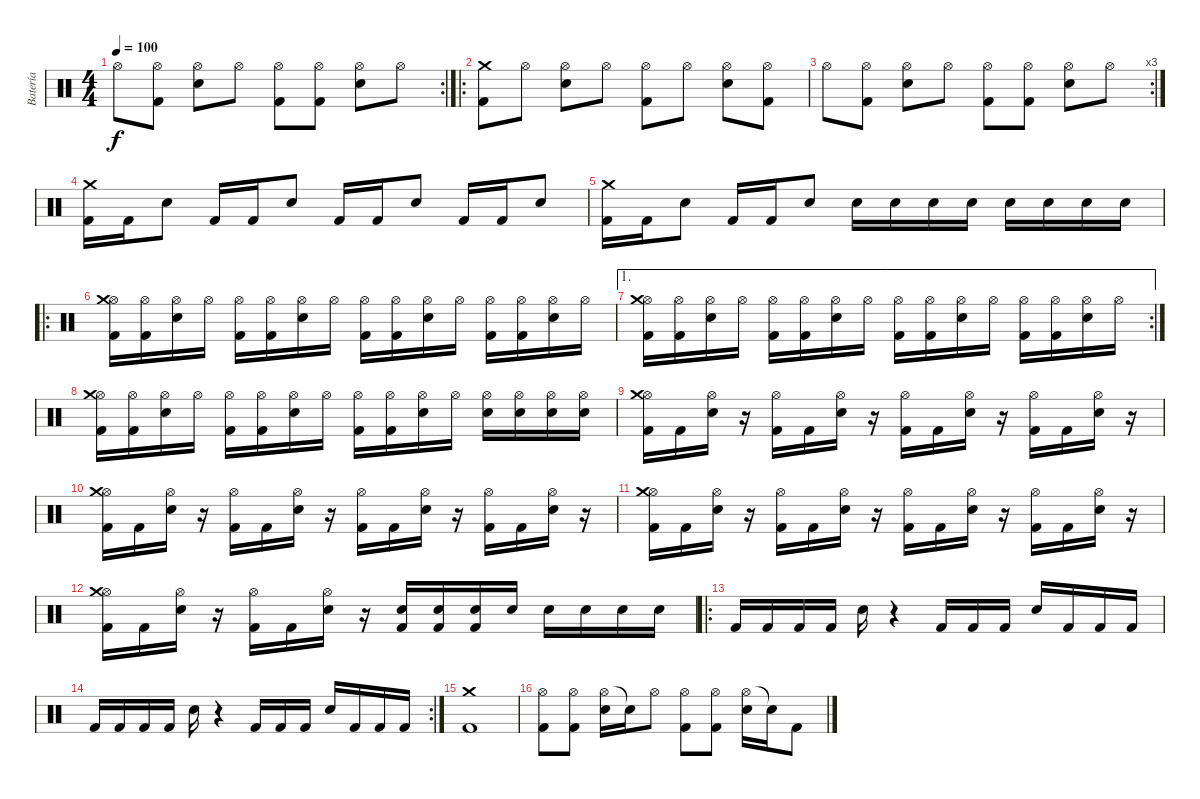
\track ("Batería" "Batería") {instrument percussion}
\staff {score}
\articulation defaults
\rc 2
\ts (4 4)
\tempo 100
\clef neutral
\ks c "Hi-Hat (open)".8{dy f}
("Kick (hit) 2" "Hi-Hat (open)").8 ("Snare (hit) 2" "Hi-Hat (open)").8 "Hi-Hat (open)".8 ("Kick (hit) 2" "Hi-Hat (open)").8 ("Kick (hit) 2" "Hi-Hat (open)").8 ("Snare (hit) 2" "Hi-Hat (open)").8 "Hi-Hat (open)".8 |
\ro
("Kick (hit) 2" "Crash medium (hit)").8 "Hi-Hat (open)".8 ("Snare (hit) 2" "Hi-Hat (open)").8 "Hi-Hat (open)".8 ("Kick (hit) 2" "Hi-Hat (open)").8 "Hi-Hat (open)".8 ("Snare (hit) 2" "Hi-Hat (open)").8 ("Kick (hit) 2" "Hi-Hat (open)").8 |
\rc 3 "Hi-Hat (open)".8
("Kick (hit) 2" "Hi-Hat (open)").8 ("Snare (hit) 2" "Hi-Hat (open)").8 "Hi-Hat (open)".8 ("Kick (hit) 2" "Hi-Hat (open)").8 ("Kick (hit) 2" "Hi-Hat (open)").8 ("Snare (hit) 2" "Hi-Hat (open)").8 "Hi-Hat (open)".8 |
("Kick (hit) 2" "Crash medium (hit)").16 "Kick (hit) 2".16 "Snare (hit) 2".8 "Kick (hit) 2".16 "Kick (hit) 2".16 "Snare (hit) 2".8 "Kick (hit) 2".16 "Kick (hit) 2".16 "Snare (hit) 2".8 "Kick (hit) 2".16 "Kick (hit) 2".16 "Snare (hit) 2".8 |
("Kick (hit) 2" "Crash medium (hit)").16 "Kick (hit) 2".16 "Snare (hit) 2".8 "Kick (hit) 2".16 "Kick (hit) 2".16 "Snare (hit) 2".8 "Snare (hit) 2".16 "Snare (hit) 2".16 "Snare (hit) 2".16 "Snare (hit) 2".16 "Snare (hit) 2".16 "Snare (hit) 2".16 "Snare (hit) 2".16 "Snare (hit) 2".16 |
\ro
("Kick (hit) 2" "Hi-Hat (open)" "Crash medium (hit)").16 ("Kick (hit) 2" "Hi-Hat (open)").16 ("Snare (hit) 2" "Hi-Hat (open)").16 "Hi-Hat (open)".16 ("Kick (hit) 2" "Hi-Hat (open)").16 ("Kick (hit) 2" "Hi-Hat (open)").16 ("Snare (hit) 2" "Hi-Hat (open)").16 "Hi-Hat (open)".16 ("Kick (hit) 2" "Hi-Hat (open)").16 ("Kick (hit) 2" "Hi-Hat (open)").16 ("Snare (hit) 2" "Hi-Hat (open)").16 "Hi-Hat (open)".16 ("Kick (hit) 2" "Hi-Hat (open)").16 ("Kick (hit) 2" "Hi-Hat (open)").16 ("Snare (hit) 2" "Hi-Hat (open)").16 "Hi-Hat (open)".16 |
\ae 1
\rc 2
("Kick (hit) 2" "Hi-Hat (open)" "Crash medium (hit)").16 ("Kick (hit) 2" "Hi-Hat (open)").16 ("Snare (hit) 2" "Hi-Hat (open)").16 "Hi-Hat (open)".16 ("Kick (hit) 2" "Hi-Hat (open)").16 ("Kick (hit) 2" "Hi-Hat (open)").16 ("Snare (hit) 2" "Hi-Hat (open)").16 "Hi-Hat (open)".16 ("Kick (hit) 2" "Hi-Hat (open)").16 ("Kick (hit) 2" "Hi-Hat (open)").16 ("Snare (hit) 2" "Hi-Hat (open)").16 "Hi-Hat (open)".16 ("Kick (hit) 2" "Hi-Hat (open)").16 ("Kick (hit) 2" "Hi-Hat (open)").16 ("Snare (hit) 2" "Hi-Hat (open)").16 "Hi-Hat (open)".16 |
("Kick (hit) 2" "Hi-Hat (open)" "Crash medium (hit)").16 ("Kick (hit) 2" "Hi-Hat (open)").16 ("Snare (hit) 2" "Hi-Hat (open)").16 "Hi-Hat (open)".16 ("Kick (hit) 2" "Hi-Hat (open)").16 ("Kick (hit) 2" "Hi-Hat (open)").16 ("Snare (hit) 2" "Hi-Hat (open)").16 "Hi-Hat (open)".16 ("Kick (hit) 2" "Hi-Hat (open)").16 ("Kick (hit) 2" "Hi-Hat (open)").16 ("Snare (hit) 2" "Hi-Hat (open)").16 "Hi-Hat (open)".16 ("Snare (hit) 2" "Hi-Hat (open)").16 ("Snare (hit) 2" "Hi-Hat (open)").16 ("Snare (hit) 2" "Hi-Hat (open)").16 ("Snare (hit) 2" "Hi-Hat (open)").16 |
("Kick (hit) 2" "Hi-Hat (open)" "Crash medium (hit)").16 "Kick (hit) 2".16 ("Snare (hit) 2" "Hi-Hat (open)").16 r.16 ("Kick (hit) 2" "Hi-Hat (open)").16 "Kick (hit) 2".16 ("Snare (hit) 2" "Hi-Hat (open)").16 r.16 ("Kick (hit) 2" "Hi-Hat (open)").16 "Kick (hit) 2".16 ("Snare (hit) 2" "Hi-Hat (open)").16 r.16 ("Kick (hit) 2" "Hi-Hat (open)").16 "Kick (hit) 2".16 ("Snare (hit) 2" "Hi-Hat (open)").16 r.16 |
("Kick (hit) 2" "Hi-Hat (open)" "Crash medium (hit)").16 "Kick (hit) 2".16 ("Snare (hit) 2" "Hi-Hat (open)").16 r.16 ("Kick (hit) 2" "Hi-Hat (open)").16 "Kick (hit) 2".16 ("Snare (hit) 2" "Hi-Hat (open)").16 r.16 ("Kick (hit) 2" "Hi-Hat (open)").16 "Kick (hit) 2".16 ("Snare (hit) 2" "Hi-Hat (open)").16 r.16 ("Kick (hit) 2" "Hi-Hat (open)").16 "Kick (hit) 2".16 ("Snare (hit) 2" "Hi-Hat (open)").16 r.16 |
("Kick (hit) 2" "Hi-Hat (open)" "Crash medium (hit)").16 "Kick (hit) 2".16 ("Snare (hit) 2" "Hi-Hat (open)").16 r.16 ("Kick (hit) 2" "Hi-Hat (open)").16 "Kick (hit) 2".16 ("Snare (hit) 2" "Hi-Hat (open)").16 r.16 ("Kick (hit) 2" "Hi-Hat (open)").16 "Kick (hit) 2".16 ("Snare (hit) 2" "Hi-Hat (open)").16 r.16 ("Kick (hit) 2" "Hi-Hat (open)").16 "Kick (hit) 2".16 ("Snare (hit) 2" "Hi-Hat (open)").16 r.16 |
("Kick (hit) 2" "Hi-Hat (open)" "Crash medium (hit)").16 "Kick (hit) 2".16 ("Snare (hit) 2" "Hi-Hat (open)").16 r.16 ("Kick (hit) 2" "Hi-Hat (open)").16 "Kick (hit) 2".16 ("Snare (hit) 2" "Hi-Hat (open)").16 r.16 ("Snare (hit) 2" "Kick (hit) 2").16 ("Snare (hit) 2" "Kick (hit) 2").16 ("Snare (hit) 2" "Kick (hit) 2").16 "Snare (hit) 2".16 "Snare (hit) 2".16 "Snare (hit) 2".16 "Snare (hit) 2".16 "Snare (hit) 2".16 |
\ro "Kick (hit) 2".16 "Kick (hit) 2".16 "Kick (hit) 2".16 "Kick (hit) 2".16 "Snare (hit) 2".16
r.4 "Kick (hit) 2".16 "Kick (hit) 2".16 "Kick (hit) 2".16 "Snare (hit) 2".16 "Kick (hit) 2".16 "Kick (hit) 2".16 "Kick (hit) 2".16 |
\rc 2 "Kick (hit) 2".16 "Kick (hit) 2".16 "Kick (hit) 2".16 "Kick (hit) 2".16 "Snare (hit) 2".16
r.4 "Kick (hit) 2".16 "Kick (hit) 2".16 "Kick (hit) 2".16 "Snare (hit) 2".16 "Kick (hit) 2".16 "Kick (hit) 2".16 "Kick (hit) 2".16 |
("Kick (hit) 2" "Crash medium (hit)").1 |
("Hi-Hat (open)" "Kick (hit) 2").8 ("Hi-Hat (open)" "Kick (hit) 2").8 ("Hi-Hat (open)" "Snare (hit) 2").16 "Snare (hit)"{t}.16 "Hi-Hat (open)".8 ("Hi-Hat (open)" "Kick (hit) 2").8 ("Hi-Hat (open)" "Kick (hit) 2").8 ("Hi-Hat (open)" "Snare (hit) 2").16 "Snare (hit)"{t}.16 "Kick (hit) 2".8
